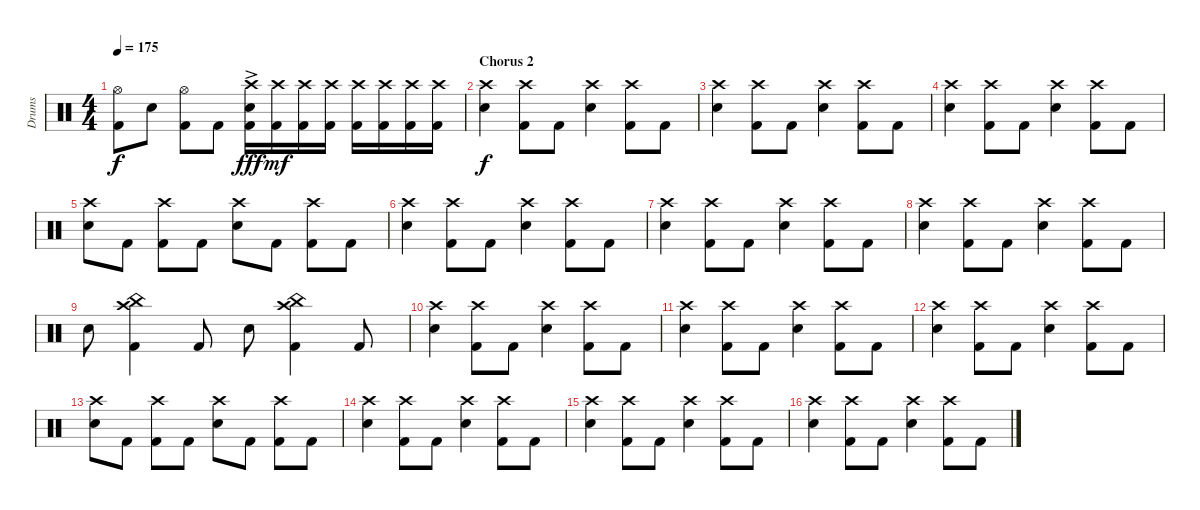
\track ("Drums" "Drums") {instrument percussion}
\staff {score}
\articulation defaults
\ts (4 4)
\tempo 175
\clef neutral
\ks c
("Hi-Hat (open)" "Kick (hit) 2").8{dy f} "Snare (hit) 2".8 ("Hi-Hat (open)" "Kick (hit) 2").8 "Kick (hit) 2".8 ("Crash high (hit)" "Snare (hit) 2"{ac} "Kick (hit) 2").16{dy fff} ("Crash high (hit)" "Kick (hit) 2").16{dy mf} ("Crash high (hit)" "Kick (hit) 2").16 ("Crash high (hit)" "Kick (hit) 2").16 ("Crash high (hit)" "Kick (hit) 2").16 ("Crash high (hit)" "Kick (hit) 2").16 ("Crash high (hit)" "Kick (hit) 2").16 ("Crash high (hit)" "Kick (hit) 2").16 |
\section ("" "Chorus 2")
("Crash high (hit)" "Snare (hit) 2").4{dy f} ("Crash high (hit)" "Kick (hit) 2").8 "Kick (hit) 2".8 ("Crash high (hit)" "Snare (hit) 2").4 ("Crash high (hit)" "Kick (hit) 2").8 "Kick (hit) 2".8 |
("Crash high (hit)" "Snare (hit) 2").4 ("Crash high (hit)" "Kick (hit) 2").8 "Kick (hit) 2".8 ("Crash high (hit)" "Snare (hit) 2").4 ("Crash high (hit)" "Kick (hit) 2").8 "Kick (hit) 2".8 |
("Crash high (hit)" "Snare (hit) 2").4 ("Crash high (hit)" "Kick (hit) 2").8 "Kick (hit) 2".8 ("Crash high (hit)" "Snare (hit) 2").4 ("Crash high (hit)" "Kick (hit) 2").8 "Kick (hit) 2".8 |
("Crash high (hit)" "Snare (hit) 2").8 "Kick (hit) 2".8 ("Crash high (hit)" "Kick (hit) 2").8 "Kick (hit) 2".8 ("Crash high (hit)" "Snare (hit) 2").8 "Kick (hit) 2".8 ("Crash high (hit)" "Kick (hit) 2").8 "Kick (hit) 2".8 |
("Crash high (hit)" "Snare (hit) 2").4 ("Crash high (hit)" "Kick (hit) 2").8 "Kick (hit) 2".8 ("Crash high (hit)" "Snare (hit) 2").4 ("Crash high (hit)" "Kick (hit) 2").8 "Kick (hit) 2".8 |
("Crash high (hit)" "Snare (hit) 2").4 ("Crash high (hit)" "Kick (hit) 2").8 "Kick (hit) 2".8 ("Crash high (hit)" "Snare (hit) 2").4 ("Crash high (hit)" "Kick (hit) 2").8 "Kick (hit) 2".8 |
("Crash high (hit)" "Snare (hit) 2").4 ("Crash high (hit)" "Kick (hit) 2").8 "Kick (hit) 2".8 ("Crash high (hit)" "Snare (hit) 2").4 ("Crash high (hit)" "Kick (hit) 2").8 "Kick (hit) 2".8 |
"Snare (hit) 2".8 ("China (hit)" "Crash high (hit)" "Kick (hit) 2").4 "Kick (hit) 2".8 "Snare (hit) 2".8 ("China (hit)" "Crash high (hit)" "Kick (hit) 2").4 "Kick (hit) 2".8 |
("Crash high (hit)" "Snare (hit) 2").4 ("Crash high (hit)" "Kick (hit) 2").8 "Kick (hit) 2".8 ("Crash high (hit)" "Snare (hit) 2").4 ("Crash high (hit)" "Kick (hit) 2").8 "Kick (hit) 2".8 |
("Crash high (hit)" "Snare (hit) 2").4 ("Crash high (hit)" "Kick (hit) 2").8 "Kick (hit) 2".8 ("Crash high (hit)" "Snare (hit) 2").4 ("Crash high (hit)" "Kick (hit) 2").8 "Kick (hit) 2".8 |
("Crash high (hit)" "Snare (hit) 2").4 ("Crash high (hit)" "Kick (hit) 2").8 "Kick (hit) 2".8 ("Crash high (hit)" "Snare (hit) 2").4 ("Crash high (hit)" "Kick (hit) 2").8 "Kick (hit) 2".8 |
("Crash high (hit)" "Snare (hit) 2").8 "Kick (hit) 2".8 ("Crash high (hit)" "Kick (hit) 2").8 "Kick (hit) 2".8 ("Crash high (hit)" "Snare (hit) 2").8 "Kick (hit) 2".8 ("Crash high (hit)" "Kick (hit) 2").8 "Kick (hit) 2".8 |
("Crash high (hit)" "Snare (hit) 2").4 ("Crash high (hit)" "Kick (hit) 2").8 "Kick (hit) 2".8 ("Crash high (hit)" "Snare (hit) 2").4 ("Crash high (hit)" "Kick (hit) 2").8 "Kick (hit) 2".8 |
("Crash high (hit)" "Snare (hit) 2").4 ("Crash high (hit)" "Kick (hit) 2").8 "Kick (hit) 2".8 ("Crash high (hit)" "Snare (hit) 2").4 ("Crash high (hit)" "Kick (hit) 2").8 "Kick (hit) 2".8 |
("Crash high (hit)" "Snare (hit) 2").4 ("Crash high (hit)" "Kick (hit) 2").8 "Kick (hit) 2".8 ("Crash high (hit)" "Snare (hit) 2").4 ("Crash high (hit)" "Kick (hit) 2").8 "Kick (hit) 2".8
